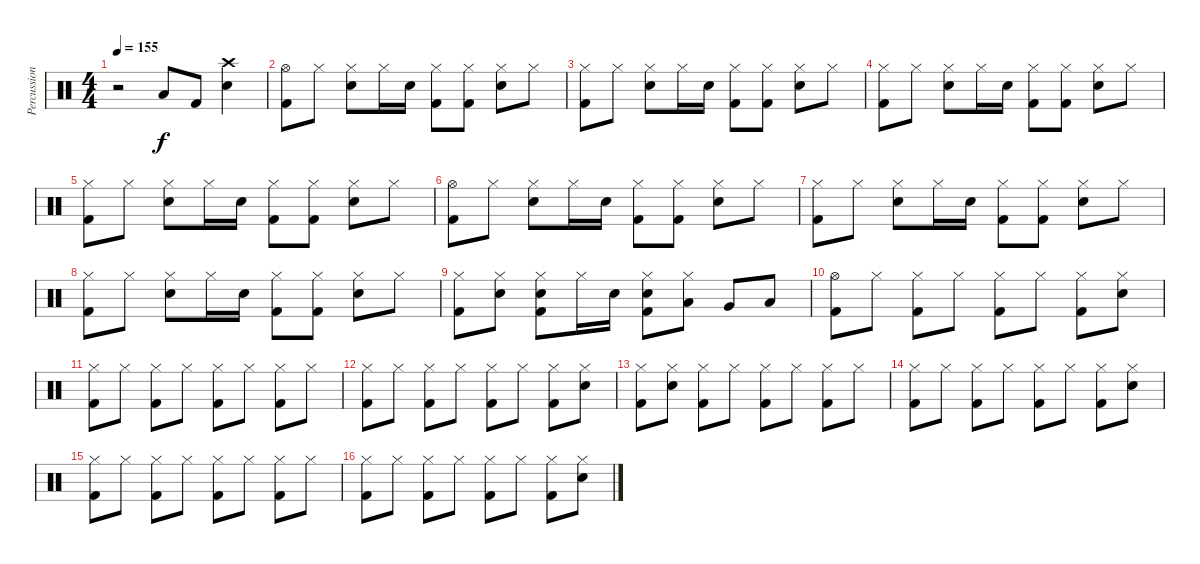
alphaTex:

\track ("Percussion" "Percussion") {instrument percussion}
\staff {score}
\articulation defaults
\ts (4 4)
\tempo 155
\clef neutral
\ks c
r.2{dy f} "Low Floor Tom (hit)".8 "Kick (hit) 2".8 ("Crash high (hit)" "Snare (hit) 2").4 |
("Hi-Hat (open)" "Kick (hit) 2").8 "Hi-Hat (closed)".8 ("Hi-Hat (closed)" "Snare (hit) 2").8 "Hi-Hat (closed)".16 "Snare (hit) 2".16 ("Hi-Hat (closed)" "Kick (hit) 2").8 ("Hi-Hat (closed)" "Kick (hit) 2").8 ("Hi-Hat (closed)" "Snare (hit) 2").8 "Hi-Hat (closed)".8 |
("Hi-Hat (closed)" "Kick (hit) 2").8 "Hi-Hat (closed)".8 ("Hi-Hat (closed)" "Snare (hit) 2").8 "Hi-Hat (closed)".16 "Snare (hit) 2".16 ("Hi-Hat (closed)" "Kick (hit) 2").8 ("Hi-Hat (closed)" "Kick (hit) 2").8 ("Hi-Hat (closed)" "Snare (hit) 2").8 "Hi-Hat (closed)".8 |
("Hi-Hat (closed)" "Kick (hit) 2").8 "Hi-Hat (closed)".8 ("Hi-Hat (closed)" "Snare (hit) 2").8 "Hi-Hat (closed)".16 "Snare (hit) 2".16 ("Hi-Hat (closed)" "Kick (hit) 2").8 ("Hi-Hat (closed)" "Kick (hit) 2").8 ("Hi-Hat (closed)" "Snare (hit) 2").8 "Hi-Hat (closed)".8 |
("Hi-Hat (closed)" "Kick (hit) 2").8 "Hi-Hat (closed)".8 ("Hi-Hat (closed)" "Snare (hit) 2").8 "Hi-Hat (closed)".16 "Snare (hit) 2".16 ("Hi-Hat (closed)" "Kick (hit) 2").8 ("Hi-Hat (closed)" "Kick (hit) 2").8 ("Hi-Hat (closed)" "Snare (hit) 2").8 "Hi-Hat (closed)".8 |
("Hi-Hat (open)" "Kick (hit) 2").8 "Hi-Hat (closed)".8 ("Hi-Hat (closed)" "Snare (hit) 2").8 "Hi-Hat (closed)".16 "Snare (hit) 2".16 ("Hi-Hat (closed)" "Kick (hit) 2").8 ("Hi-Hat (closed)" "Kick (hit) 2").8 ("Hi-Hat (closed)" "Snare (hit) 2").8 "Hi-Hat (closed)".8 |
("Hi-Hat (closed)" "Kick (hit) 2").8 "Hi-Hat (closed)".8 ("Hi-Hat (closed)" "Snare (hit) 2").8 "Hi-Hat (closed)".16 "Snare (hit) 2".16 ("Hi-Hat (closed)" "Kick (hit) 2").8 ("Hi-Hat (closed)" "Kick (hit) 2").8 ("Hi-Hat (closed)" "Snare (hit) 2").8 "Hi-Hat (closed)".8 |
("Hi-Hat (closed)" "Kick (hit) 2").8 "Hi-Hat (closed)".8 ("Hi-Hat (closed)" "Snare (hit) 2").8 "Hi-Hat (closed)".16 "Snare (hit) 2".16 ("Hi-Hat (closed)" "Kick (hit) 2").8 ("Hi-Hat (closed)" "Kick (hit) 2").8 ("Hi-Hat (closed)" "Snare (hit) 2").8 "Hi-Hat (closed)".8 |
("Hi-Hat (closed)" "Kick (hit) 2").8 ("Hi-Hat (closed)" "Snare (hit) 2").8 ("Hi-Hat (closed)" "Snare (hit) 2" "Kick (hit) 2").8 "Hi-Hat (closed)".16 "Snare (hit) 2".16 ("Hi-Hat (closed)" "Snare (hit) 2" "Kick (hit) 2").8 ("Hi-Hat (closed)" "Low Tom (hit)").8 "Very Low Tom (hit)".8 "Low Floor Tom (hit)".8 |
("Hi-Hat (open)" "Kick (hit) 2").8 "Hi-Hat (closed)".8 ("Hi-Hat (closed)" "Kick (hit) 2").8 "Hi-Hat (closed)".8 ("Hi-Hat (closed)" "Kick (hit) 2").8 "Hi-Hat (closed)".8 ("Hi-Hat (closed)" "Kick (hit) 2").8 ("Hi-Hat (closed)" "Snare (hit) 2").8 |
("Hi-Hat (closed)" "Kick (hit) 2").8 "Hi-Hat (closed)".8 ("Hi-Hat (closed)" "Kick (hit) 2").8 "Hi-Hat (closed)".8 ("Hi-Hat (closed)" "Kick (hit) 2").8 "Hi-Hat (closed)".8 ("Hi-Hat (closed)" "Kick (hit) 2").8 "Hi-Hat (closed)".8 |
("Hi-Hat (closed)" "Kick (hit) 2").8 "Hi-Hat (closed)".8 ("Hi-Hat (closed)" "Kick (hit) 2").8 "Hi-Hat (closed)".8 ("Hi-Hat (closed)" "Kick (hit) 2").8 "Hi-Hat (closed)".8 ("Hi-Hat (closed)" "Kick (hit) 2").8 ("Hi-Hat (closed)" "Snare (hit) 2").8 |
("Hi-Hat (closed)" "Kick (hit) 2").8 ("Hi-Hat (closed)" "Snare (hit) 2").8 ("Hi-Hat (closed)" "Kick (hit) 2").8 "Hi-Hat (closed)".8 ("Hi-Hat (closed)" "Kick (hit) 2").8 "Hi-Hat (closed)".8 ("Hi-Hat (closed)" "Kick (hit) 2").8 "Hi-Hat (closed)".8 |
("Hi-Hat (closed)" "Kick (hit) 2").8 "Hi-Hat (closed)".8 ("Hi-Hat (closed)" "Kick (hit) 2").8 "Hi-Hat (closed)".8 ("Hi-Hat (closed)" "Kick (hit) 2").8 "Hi-Hat (closed)".8 ("Hi-Hat (closed)" "Kick (hit) 2").8 ("Hi-Hat (closed)" "Snare (hit) 2").8 |
("Hi-Hat (closed)" "Kick (hit) 2").8 "Hi-Hat (closed)".8 ("Hi-Hat (closed)" "Kick (hit) 2").8 "Hi-Hat (closed)".8 ("Hi-Hat (closed)" "Kick (hit) 2").8 "Hi-Hat (closed)".8 ("Hi-Hat (closed)" "Kick (hit) 2").8 "Hi-Hat (closed)".8 |
("Hi-Hat (closed)" "Kick (hit) 2").8 "Hi-Hat (closed)".8 ("Hi-Hat (closed)" "Kick (hit) 2").8 "Hi-Hat (closed)".8 ("Hi-Hat (closed)" "Kick (hit) 2").8 "Hi-Hat (closed)".8 ("Hi-Hat (closed)" "Kick (hit) 2").8 ("Hi-Hat (closed)" "Snare (hit) 2").8
